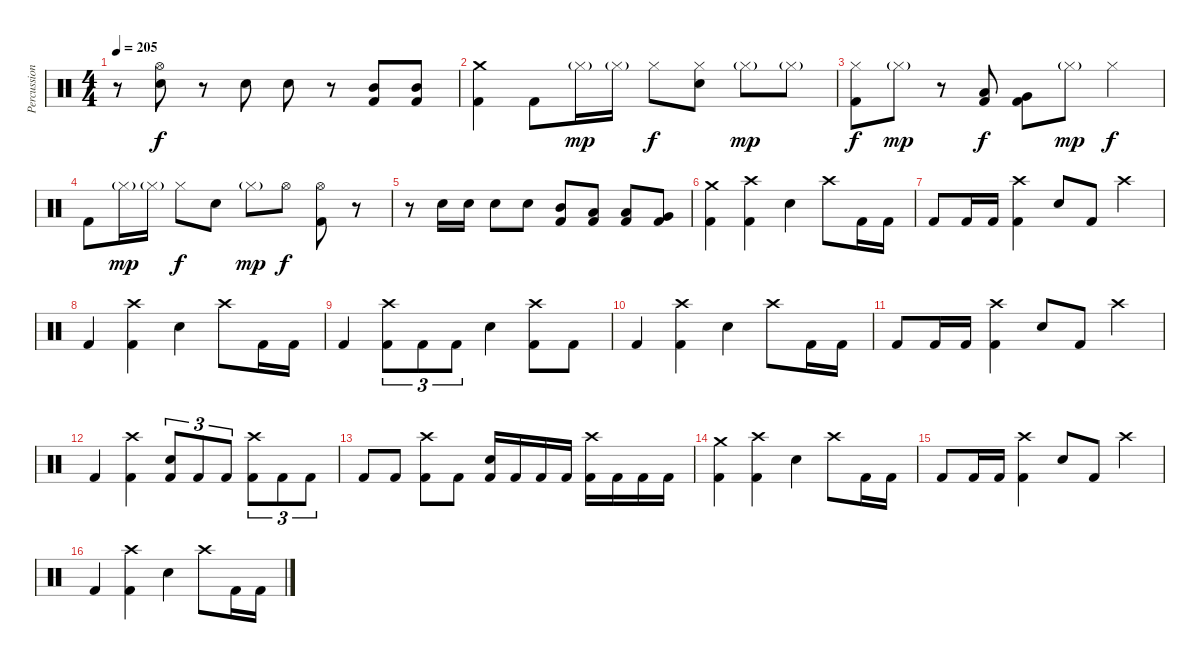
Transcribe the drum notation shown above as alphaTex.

\track ("Percussions" "Percussion") {instrument percussion}
\staff {score}
\articulation defaults
\ts (4 4)
\tempo 205
\clef neutral
\ks c
r.8{dy f} ("Hi-Hat (open)" "Electric Snare (hit)").8 r.8 "Electric Snare (hit)".8 "Electric Snare (hit)".8 r.8 ("Mid Tom (hit)" "Kick (hit) 2").8 ("Mid Tom (hit)" "Kick (hit) 2").8 |
("Crash medium (hit)" "Kick (hit) 2").4 "Kick (hit) 2".8 "Hi-Hat (closed)"{g}.16{dy mp} "Hi-Hat (closed)"{g}.16 "Hi-Hat (closed)".8{dy f} ("Hi-Hat (closed)" "Electric Snare (hit)").8 "Hi-Hat (closed)"{g}.8{dy mp} "Hi-Hat (closed)"{g}.8 |
("Hi-Hat (closed)" "Kick (hit) 2").8{dy f} "Hi-Hat (closed)"{g}.8{dy mp} r.8 ("Low Tom (hit)" "Kick (hit) 2").8{dy f} ("Very Low Tom (hit)" "Kick (hit) 2").8 "Hi-Hat (closed)"{g}.8{dy mp} "Hi-Hat (closed)".4{dy f} |
"Kick (hit) 2".8 "Hi-Hat (closed)"{g}.16{dy mp} "Hi-Hat (closed)"{g}.16 "Hi-Hat (closed)".8{dy f} "Electric Snare (hit)".8 "Hi-Hat (closed)"{g}.8{dy mp} "Hi-Hat (open)".8{dy f} ("Hi-Hat (open)" "Kick (hit) 2").8 r.8 |
r.8 "Electric Snare (hit)".16 "Electric Snare (hit)".16 "Electric Snare (hit)".8 "Electric Snare (hit)".8 ("Mid Tom (hit)" "Kick (hit) 2").8 ("Low Tom (hit)" "Kick (hit) 2").8 ("Low Tom (hit)" "Kick (hit) 2").8 ("Very Low Tom (hit)" "Kick (hit) 2").8 |
("Crash medium (hit)" "Kick (hit) 2").4 ("Crash high (hit)" "Kick (hit) 2").4 "Electric Snare (hit)".4 "Crash high (hit)".8 "Kick (hit) 2".16 "Kick (hit) 2".16 |
"Kick (hit) 2".8 "Kick (hit) 2".16 "Kick (hit) 2".16 ("Crash high (hit)" "Kick (hit) 2").4 "Electric Snare (hit)".8 "Kick (hit) 2".8 "Crash high (hit)".4 |
"Kick (hit) 2".4 ("Crash high (hit)" "Kick (hit) 2").4 "Electric Snare (hit)".4 "Crash high (hit)".8 "Kick (hit) 2".16 "Kick (hit) 2".16 |
"Kick (hit) 2".4 ("Crash high (hit)" "Kick (hit) 2").8{tu (3 2)} "Kick (hit) 2".8{tu (3 2)} "Kick (hit) 2".8{tu (3 2)} "Electric Snare (hit)".4 ("Crash high (hit)" "Kick (hit) 2").8 "Kick (hit) 2".8 |
"Kick (hit) 2".4 ("Crash high (hit)" "Kick (hit) 2").4 "Electric Snare (hit)".4 "Crash high (hit)".8 "Kick (hit) 2".16 "Kick (hit) 2".16 |
"Kick (hit) 2".8 "Kick (hit) 2".16 "Kick (hit) 2".16 ("Crash high (hit)" "Kick (hit) 2").4 "Electric Snare (hit)".8 "Kick (hit) 2".8 "Crash high (hit)".4 |
"Kick (hit) 2".4 ("Crash high (hit)" "Kick (hit) 2").4 ("Electric Snare (hit)" "Kick (hit) 2").8{tu (3 2)} "Kick (hit) 2".8{tu (3 2)} "Kick (hit) 2".8{tu (3 2)} ("Crash high (hit)" "Kick (hit) 2").8{tu (3 2)} "Kick (hit) 2".8{tu (3 2)} "Kick (hit) 2".8{tu (3 2)} |
"Kick (hit) 2".8 "Kick (hit) 2".8 ("Crash high (hit)" "Kick (hit) 2").8 "Kick (hit) 2".8 ("Electric Snare (hit)" "Kick (hit) 2").16 "Kick (hit) 2".16 "Kick (hit) 2".16 "Kick (hit) 2".16 ("Crash high (hit)" "Kick (hit) 2").16 "Kick (hit) 2".16 "Kick (hit) 2".16 "Kick (hit) 2".16 |
("Crash medium (hit)" "Kick (hit) 2").4 ("Crash high (hit)" "Kick (hit) 2").4 "Electric Snare (hit)".4 "Crash high (hit)".8 "Kick (hit) 2".16 "Kick (hit) 2".16 |
"Kick (hit) 2".8 "Kick (hit) 2".16 "Kick (hit) 2".16 ("Crash high (hit)" "Kick (hit) 2").4 "Electric Snare (hit)".8 "Kick (hit) 2".8 "Crash high (hit)".4 |
"Kick (hit) 2".4 ("Crash high (hit)" "Kick (hit) 2").4 "Electric Snare (hit)".4 "Crash high (hit)".8 "Kick (hit) 2".16 "Kick (hit) 2".16
